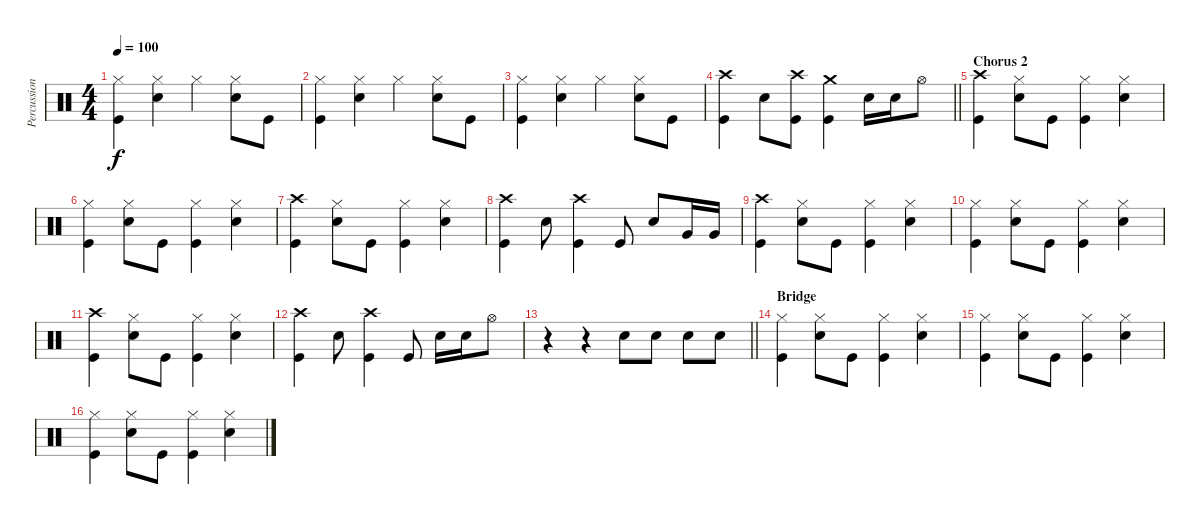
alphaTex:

\track ("Percussion" "Percussion") {instrument percussion}
\staff {score}
\articulation defaults
\ts (4 4)
\tempo 100
\clef neutral
\ks c
("Hi-Hat (closed)" "Kick (hit)").4{dy f} ("Hi-Hat (closed)" "Snare (hit) 2").4 "Hi-Hat (closed)".4 ("Hi-Hat (closed)" "Snare (hit) 2").8 "Kick (hit)".8 |
("Hi-Hat (closed)" "Kick (hit)").4 ("Hi-Hat (closed)" "Snare (hit) 2").4 "Hi-Hat (closed)".4 ("Hi-Hat (closed)" "Snare (hit) 2").8 "Kick (hit)".8 |
("Hi-Hat (closed)" "Kick (hit)").4 ("Hi-Hat (closed)" "Snare (hit) 2").4 "Hi-Hat (closed)".4 ("Hi-Hat (closed)" "Snare (hit) 2").8 "Kick (hit)".8 |
\barLineRight lightlight
("Kick (hit)" "Crash high (hit)").4 "Snare (hit) 2".8 ("Kick (hit)" "Crash high (hit)").8 ("Kick (hit)" "Crash medium (hit)").4 "Snare (hit) 2".16 "Snare (hit) 2".16 "Hi-Hat (open)".8 |
\section ("" "Chorus 2")
("Crash high (hit)" "Kick (hit)").4 ("Hi-Hat (closed)" "Snare (hit) 2").8 "Kick (hit)".8 ("Hi-Hat (closed)" "Kick (hit)").4 ("Snare (hit) 2" "Hi-Hat (closed)").4 |
("Hi-Hat (closed)" "Kick (hit)").4 ("Hi-Hat (closed)" "Snare (hit) 2").8 "Kick (hit)".8 ("Hi-Hat (closed)" "Kick (hit)").4 ("Snare (hit) 2" "Hi-Hat (closed)").4 |
("Crash high (hit)" "Kick (hit)").4 ("Hi-Hat (closed)" "Snare (hit) 2").8 "Kick (hit)".8 ("Hi-Hat (closed)" "Kick (hit)").4 ("Snare (hit) 2" "Hi-Hat (closed)").4 |
("Crash high (hit)" "Kick (hit)").4 "Snare (hit) 2".8 ("Crash high (hit)" "Kick (hit)").4 "Kick (hit)".8 "Snare (hit) 2".8 "Very Low Tom (hit)".16 "Very Low Tom (hit)".16 |
("Crash high (hit)" "Kick (hit)").4 ("Hi-Hat (closed)" "Snare (hit) 2").8 "Kick (hit)".8 ("Hi-Hat (closed)" "Kick (hit)").4 ("Snare (hit) 2" "Hi-Hat (closed)").4 |
("Hi-Hat (closed)" "Kick (hit)").4 ("Hi-Hat (closed)" "Snare (hit) 2").8 "Kick (hit)".8 ("Hi-Hat (closed)" "Kick (hit)").4 ("Snare (hit) 2" "Hi-Hat (closed)").4 |
("Crash high (hit)" "Kick (hit)").4 ("Hi-Hat (closed)" "Snare (hit) 2").8 "Kick (hit)".8 ("Hi-Hat (closed)" "Kick (hit)").4 ("Snare (hit) 2" "Hi-Hat (closed)").4 |
("Crash high (hit)" "Kick (hit)").4 "Snare (hit) 2".8 ("Crash high (hit)" "Kick (hit)").4 "Kick (hit)".8 "Snare (hit) 2".16 "Snare (hit) 2".16 "Hi-Hat (open)".8 |
\barLineRight lightlight
r.4 r.4 "Snare (hit) 2".8 "Snare (hit) 2".8 "Snare (hit) 2".8 "Snare (hit) 2".8 |
\section ("" "Bridge")
("Hi-Hat (closed)" "Kick (hit)").4 ("Hi-Hat (closed)" "Snare (hit) 2").8 "Kick (hit)".8 ("Hi-Hat (closed)" "Kick (hit)").4 ("Snare (hit) 2" "Hi-Hat (closed)").4 |
("Hi-Hat (closed)" "Kick (hit)").4 ("Hi-Hat (closed)" "Snare (hit) 2").8 "Kick (hit)".8 ("Hi-Hat (closed)" "Kick (hit)").4 ("Snare (hit) 2" "Hi-Hat (closed)").4 |
("Hi-Hat (closed)" "Kick (hit)").4 ("Hi-Hat (closed)" "Snare (hit) 2").8 "Kick (hit)".8 ("Hi-Hat (closed)" "Kick (hit)").4 ("Snare (hit) 2" "Hi-Hat (closed)").4
